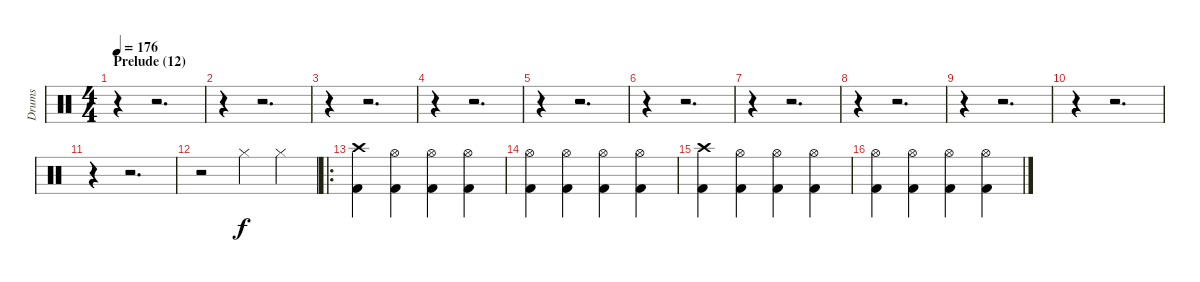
\track ("Drums" "Drums") {instrument percussion}
\staff {score}
\articulation defaults
\ts (4 4)
\section ("" "Prelude (12)")
\tempo 176
\clef neutral
\ks c
r.4{dy f} r.2{d} |
r.4 r.2{d} |
r.4 r.2{d} |
r.4 r.2{d} |
r.4 r.2{d} |
r.4 r.2{d} |
r.4 r.2{d} |
r.4 r.2{d} |
r.4 r.2{d} |
r.4 r.2{d} |
r.4 r.2{d} |
r.2 "Hi-Hat (closed)".4 "Hi-Hat (closed)".4 |
\ro
("Crash high (hit)" "Kick (hit) 2").4 ("Hi-Hat (open)" "Kick (hit) 2").4 ("Hi-Hat (open)" "Kick (hit) 2").4 ("Hi-Hat (open)" "Kick (hit) 2").4 |
("Hi-Hat (open)" "Kick (hit) 2").4 ("Hi-Hat (open)" "Kick (hit) 2").4 ("Hi-Hat (open)" "Kick (hit) 2").4 ("Hi-Hat (open)" "Kick (hit) 2").4 |
("Crash high (hit)" "Kick (hit) 2").4 ("Hi-Hat (open)" "Kick (hit) 2").4 ("Hi-Hat (open)" "Kick (hit) 2").4 ("Hi-Hat (open)" "Kick (hit) 2").4 |
("Hi-Hat (open)" "Kick (hit) 2").4 ("Hi-Hat (open)" "Kick (hit) 2").4 ("Hi-Hat (open)" "Kick (hit) 2").4 ("Hi-Hat (open)" "Kick (hit) 2").4
